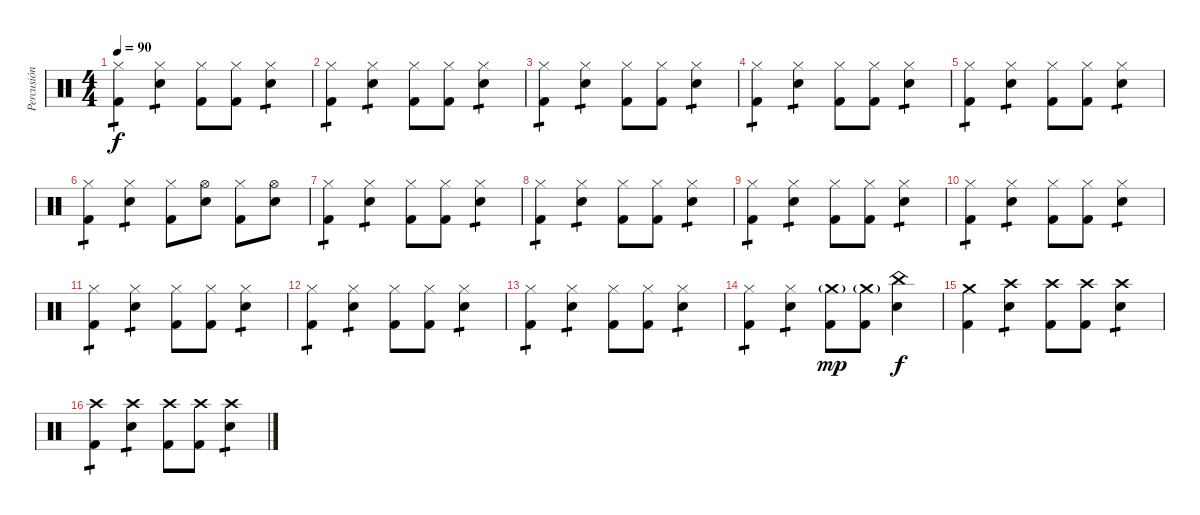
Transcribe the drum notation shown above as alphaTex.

\track ("Percusión" "Percusión") {instrument percussion}
\staff {score}
\articulation defaults
\ts (4 4)
\tempo 90
\clef neutral
\ks c
("Hi-Hat (closed)" "Kick (hit) 2").4{tp 1 dy f} ("Hi-Hat (closed)" "Snare (hit) 2").4{tp 1} ("Hi-Hat (closed)" "Kick (hit) 2").8 ("Hi-Hat (closed)" "Kick (hit) 2").8 ("Hi-Hat (closed)" "Snare (hit) 2").4{tp 1} |
("Hi-Hat (closed)" "Kick (hit) 2").4{tp 1} ("Hi-Hat (closed)" "Snare (hit) 2").4{tp 1} ("Hi-Hat (closed)" "Kick (hit) 2").8 ("Hi-Hat (closed)" "Kick (hit) 2").8 ("Hi-Hat (closed)" "Snare (hit) 2").4{tp 1} |
("Hi-Hat (closed)" "Kick (hit) 2").4{tp 1} ("Hi-Hat (closed)" "Snare (hit) 2").4{tp 1} ("Hi-Hat (closed)" "Kick (hit) 2").8 ("Hi-Hat (closed)" "Kick (hit) 2").8 ("Hi-Hat (closed)" "Snare (hit) 2").4{tp 1} |
("Hi-Hat (closed)" "Kick (hit) 2").4{tp 1} ("Hi-Hat (closed)" "Snare (hit) 2").4{tp 1} ("Hi-Hat (closed)" "Kick (hit) 2").8 ("Hi-Hat (closed)" "Kick (hit) 2").8 ("Hi-Hat (closed)" "Snare (hit) 2").4{tp 1} |
("Hi-Hat (closed)" "Kick (hit) 2").4{tp 1} ("Hi-Hat (closed)" "Snare (hit) 2").4{tp 1} ("Hi-Hat (closed)" "Kick (hit) 2").8 ("Hi-Hat (closed)" "Kick (hit) 2").8 ("Hi-Hat (closed)" "Snare (hit) 2").4{tp 1} |
("Hi-Hat (closed)" "Kick (hit) 2").4{tp 1} ("Hi-Hat (closed)" "Snare (hit) 2").4{tp 1} ("Hi-Hat (closed)" "Kick (hit) 2").8 ("Hi-Hat (open)" "Snare (hit) 2").8 ("Hi-Hat (closed)" "Kick (hit) 2").8 ("Hi-Hat (open)" "Snare (hit) 2").8 |
("Hi-Hat (closed)" "Kick (hit) 2").4{tp 1} ("Hi-Hat (closed)" "Snare (hit) 2").4{tp 1} ("Hi-Hat (closed)" "Kick (hit) 2").8 ("Hi-Hat (closed)" "Kick (hit) 2").8 ("Hi-Hat (closed)" "Snare (hit) 2").4{tp 1} |
("Hi-Hat (closed)" "Kick (hit) 2").4{tp 1} ("Hi-Hat (closed)" "Snare (hit) 2").4{tp 1} ("Hi-Hat (closed)" "Kick (hit) 2").8 ("Hi-Hat (closed)" "Kick (hit) 2").8 ("Hi-Hat (closed)" "Snare (hit) 2").4{tp 1} |
("Hi-Hat (closed)" "Kick (hit) 2").4{tp 1} ("Hi-Hat (closed)" "Snare (hit) 2").4{tp 1} ("Hi-Hat (closed)" "Kick (hit) 2").8 ("Hi-Hat (closed)" "Kick (hit) 2").8 ("Hi-Hat (closed)" "Snare (hit) 2").4{tp 1} |
("Hi-Hat (closed)" "Kick (hit) 2").4{tp 1} ("Hi-Hat (closed)" "Snare (hit) 2").4{tp 1} ("Hi-Hat (closed)" "Kick (hit) 2").8 ("Hi-Hat (closed)" "Kick (hit) 2").8 ("Hi-Hat (closed)" "Snare (hit) 2").4{tp 1} |
("Hi-Hat (closed)" "Kick (hit) 2").4{tp 1} ("Hi-Hat (closed)" "Snare (hit) 2").4{tp 1} ("Hi-Hat (closed)" "Kick (hit) 2").8 ("Hi-Hat (closed)" "Kick (hit) 2").8 ("Hi-Hat (closed)" "Snare (hit) 2").4{tp 1} |
("Hi-Hat (closed)" "Kick (hit) 2").4{tp 1} ("Hi-Hat (closed)" "Snare (hit) 2").4{tp 1} ("Hi-Hat (closed)" "Kick (hit) 2").8 ("Hi-Hat (closed)" "Kick (hit) 2").8 ("Hi-Hat (closed)" "Snare (hit) 2").4{tp 1} |
("Hi-Hat (closed)" "Kick (hit) 2").4{tp 1} ("Hi-Hat (closed)" "Snare (hit) 2").4{tp 1} ("Hi-Hat (closed)" "Kick (hit) 2").8 ("Hi-Hat (closed)" "Kick (hit) 2").8 ("Hi-Hat (closed)" "Snare (hit) 2").4{tp 1} |
("Hi-Hat (closed)" "Kick (hit) 2").4{tp 1} ("Hi-Hat (closed)" "Snare (hit) 2").4{tp 1} ("Crash medium (hit)"{g} "Kick (hit) 2").8{dy mp} ("Crash medium (hit)"{g} "Kick (hit) 2").8 ("China (hit)" "Snare (hit) 2").4{dy f} |
("Crash medium (hit)" "Kick (hit) 2").4 ("Crash high (hit)" "Snare (hit) 2").4{tp 1} ("Crash high (hit)" "Kick (hit) 2").8 ("Crash high (hit)" "Kick (hit) 2").8 ("Crash high (hit)" "Snare (hit) 2").4{tp 1} |
("Crash high (hit)" "Kick (hit) 2").4{tp 1} ("Crash high (hit)" "Snare (hit) 2").4{tp 1} ("Crash high (hit)" "Kick (hit) 2").8 ("Crash high (hit)" "Kick (hit) 2").8 ("Crash high (hit)" "Snare (hit) 2").4{tp 1}
